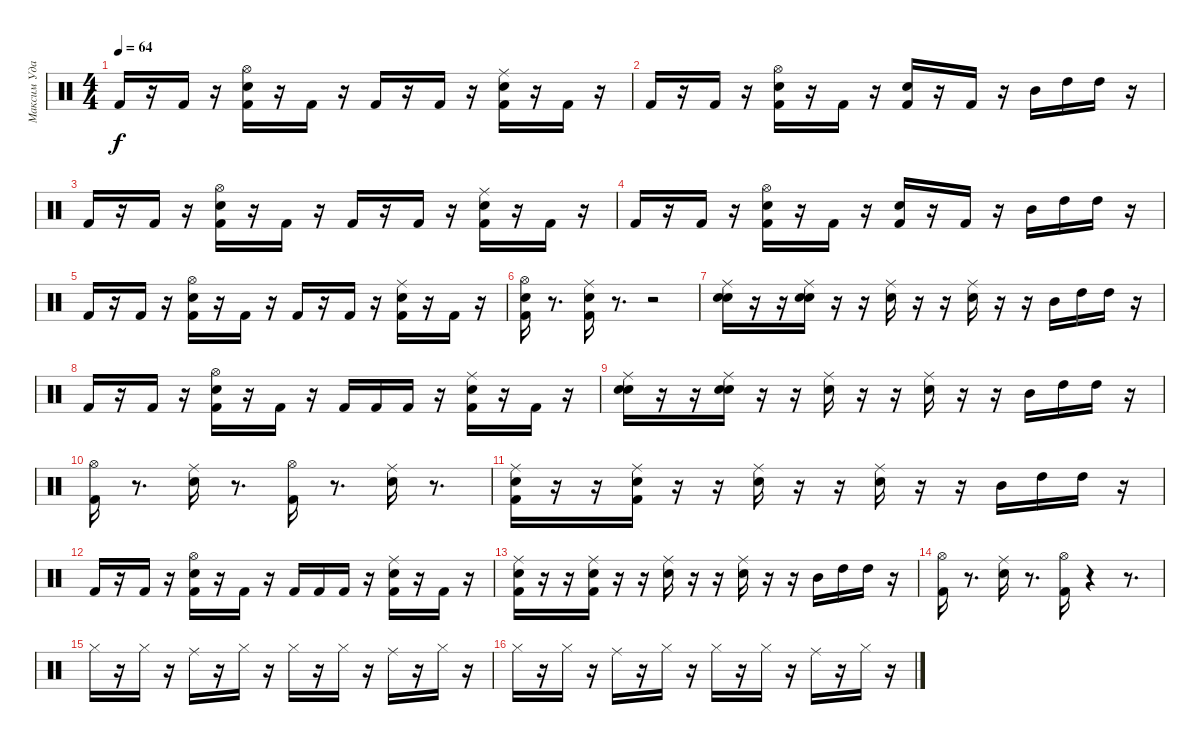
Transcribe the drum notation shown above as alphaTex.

\track ("Максим Удалов" "Максим Уда") {instrument percussion}
\staff {score}
\articulation defaults
\ts (4 4)
\tempo 64
\clef neutral
\ks c "Kick (hit) 2".16{dy f}
r.16 "Kick (hit) 2".16 r.16 ("Electric Snare (hit)" "Hi-Hat (open)" "Kick (hit) 2").16 r.16 "Kick (hit) 2".16 r.16 "Kick (hit) 2".16 r.16 "Kick (hit) 2".16 r.16 ("Kick (hit) 2" "Electric Snare (hit)" "Ride (middle)").16 r.16 "Kick (hit) 2".16 r.16 |
"Kick (hit) 2".16 r.16 "Kick (hit) 2".16 r.16 ("Kick (hit) 2" "Electric Snare (hit)" "Hi-Hat (open)").16 r.16 "Kick (hit) 2".16 r.16 ("Kick (hit) 2" "Electric Snare (hit)").16 r.16 "Kick (hit) 2".16 r.16 "Mid Tom (hit)".16 "High Tom (hit)".16 "High Tom (hit)".16 r.16 |
"Kick (hit) 2".16 r.16 "Kick (hit) 2".16 r.16 ("Electric Snare (hit)" "Hi-Hat (open)" "Kick (hit) 2").16 r.16 "Kick (hit) 2".16 r.16 "Kick (hit) 2".16 r.16 "Kick (hit) 2".16 r.16 ("Kick (hit) 2" "Electric Snare (hit)" "Ride (middle)").16 r.16 "Kick (hit) 2".16 r.16 |
"Kick (hit) 2".16 r.16 "Kick (hit) 2".16 r.16 ("Kick (hit) 2" "Electric Snare (hit)" "Hi-Hat (open)").16 r.16 "Kick (hit) 2".16 r.16 ("Kick (hit) 2" "Electric Snare (hit)").16 r.16 "Kick (hit) 2".16 r.16 "Mid Tom (hit)".16 "High Tom (hit)".16 "High Tom (hit)".16 r.16 |
"Kick (hit) 2".16 r.16 "Kick (hit) 2".16 r.16 ("Electric Snare (hit)" "Hi-Hat (open)" "Kick (hit) 2").16 r.16 "Kick (hit) 2".16 r.16 "Kick (hit) 2".16 r.16 "Kick (hit) 2".16 r.16 ("Kick (hit) 2" "Electric Snare (hit)" "Ride (middle)").16 r.16 "Kick (hit) 2".16 r.16 |
("Hi-Hat (open)" "Electric Snare (hit)" "Kick (hit) 2").16 r.8{d} ("Ride (middle)" "Kick (hit) 2" "Electric Snare (hit)").16 r.8{d} r.2 |
("Electric Snare (hit)" "Electric Snare (hit)" "Ride (middle)").16 r.16 r.16 ("Electric Snare (hit)" "Electric Snare (hit)" "Ride (middle)").16 r.16 r.16 ("Electric Snare (hit)" "Ride (middle)").16 r.16 r.16 ("Electric Snare (hit)" "Ride (middle)").16 r.16 r.16 "Mid Tom (hit)".16 "High Tom (hit)".16 "High Tom (hit)".16 r.16 |
"Kick (hit) 2".16 r.16 "Kick (hit) 2".16 r.16 ("Electric Snare (hit)" "Hi-Hat (open)" "Kick (hit) 2").16 r.16 "Kick (hit) 2".16 r.16 "Kick (hit) 2".16 "Kick (hit) 2".16 "Kick (hit) 2".16 r.16 ("Kick (hit) 2" "Electric Snare (hit)" "Ride (middle)").16 r.16 "Kick (hit) 2".16 r.16 |
("Electric Snare (hit)" "Electric Snare (hit)" "Ride (middle)").16 r.16 r.16 ("Electric Snare (hit)" "Electric Snare (hit)" "Ride (middle)").16 r.16 r.16 ("Electric Snare (hit)" "Ride (middle)").16 r.16 r.16 ("Electric Snare (hit)" "Ride (middle)").16 r.16 r.16 "Mid Tom (hit)".16 "High Tom (hit)".16 "High Tom (hit)".16 r.16 |
("Hi-Hat (open)" "Kick (hit) 2").16 r.8{d} ("Electric Snare (hit)" "Ride (middle)").16 r.8{d} ("Kick (hit) 2" "Hi-Hat (open)").16 r.8{d} ("Electric Snare (hit)" "Ride (middle)").16 r.8{d} |
("Electric Snare (hit)" "Kick (hit) 2" "Ride (middle)").16 r.16 r.16 ("Electric Snare (hit)" "Kick (hit) 2" "Ride (middle)").16 r.16 r.16 ("Electric Snare (hit)" "Ride (middle)").16 r.16 r.16 ("Electric Snare (hit)" "Ride (middle)").16 r.16 r.16 "Mid Tom (hit)".16 "High Tom (hit)".16 "High Tom (hit)".16 r.16 |
"Kick (hit) 2".16 r.16 "Kick (hit) 2".16 r.16 ("Electric Snare (hit)" "Hi-Hat (open)" "Kick (hit) 2").16 r.16 "Kick (hit) 2".16 r.16 "Kick (hit) 2".16 "Kick (hit) 2".16 "Kick (hit) 2".16 r.16 ("Kick (hit) 2" "Electric Snare (hit)" "Ride (middle)").16 r.16 "Kick (hit) 2".16 r.16 |
("Electric Snare (hit)" "Kick (hit) 2" "Ride (middle)").16 r.16 r.16 ("Electric Snare (hit)" "Kick (hit) 2" "Ride (middle)").16 r.16 r.16 ("Electric Snare (hit)" "Ride (middle)").16 r.16 r.16 ("Electric Snare (hit)" "Ride (middle)").16 r.16 r.16 "Mid Tom (hit)".16 "High Tom (hit)".16 "High Tom (hit)".16 r.16 |
("Hi-Hat (open)" "Kick (hit) 2").16 r.8{d} ("Electric Snare (hit)" "Ride (middle)").16 r.8{d} ("Kick (hit) 2" "Hi-Hat (open)").16 r.4 r.8{d} |
"Hi-Hat (closed)".16 r.16 "Hi-Hat (closed)".16 r.16 "Ride (middle)".16 r.16 "Hi-Hat (closed)".16 r.16 "Hi-Hat (closed)".16 r.16 "Hi-Hat (closed)".16 r.16 "Ride (middle)".16 r.16 "Hi-Hat (closed)".16 r.16 |
"Hi-Hat (closed)".16 r.16 "Hi-Hat (closed)".16 r.16 "Ride (middle)".16 r.16 "Hi-Hat (closed)".16 r.16 "Hi-Hat (closed)".16 r.16 "Hi-Hat (closed)".16 r.16 "Ride (middle)".16 r.16 "Hi-Hat (closed)".16 r.16
